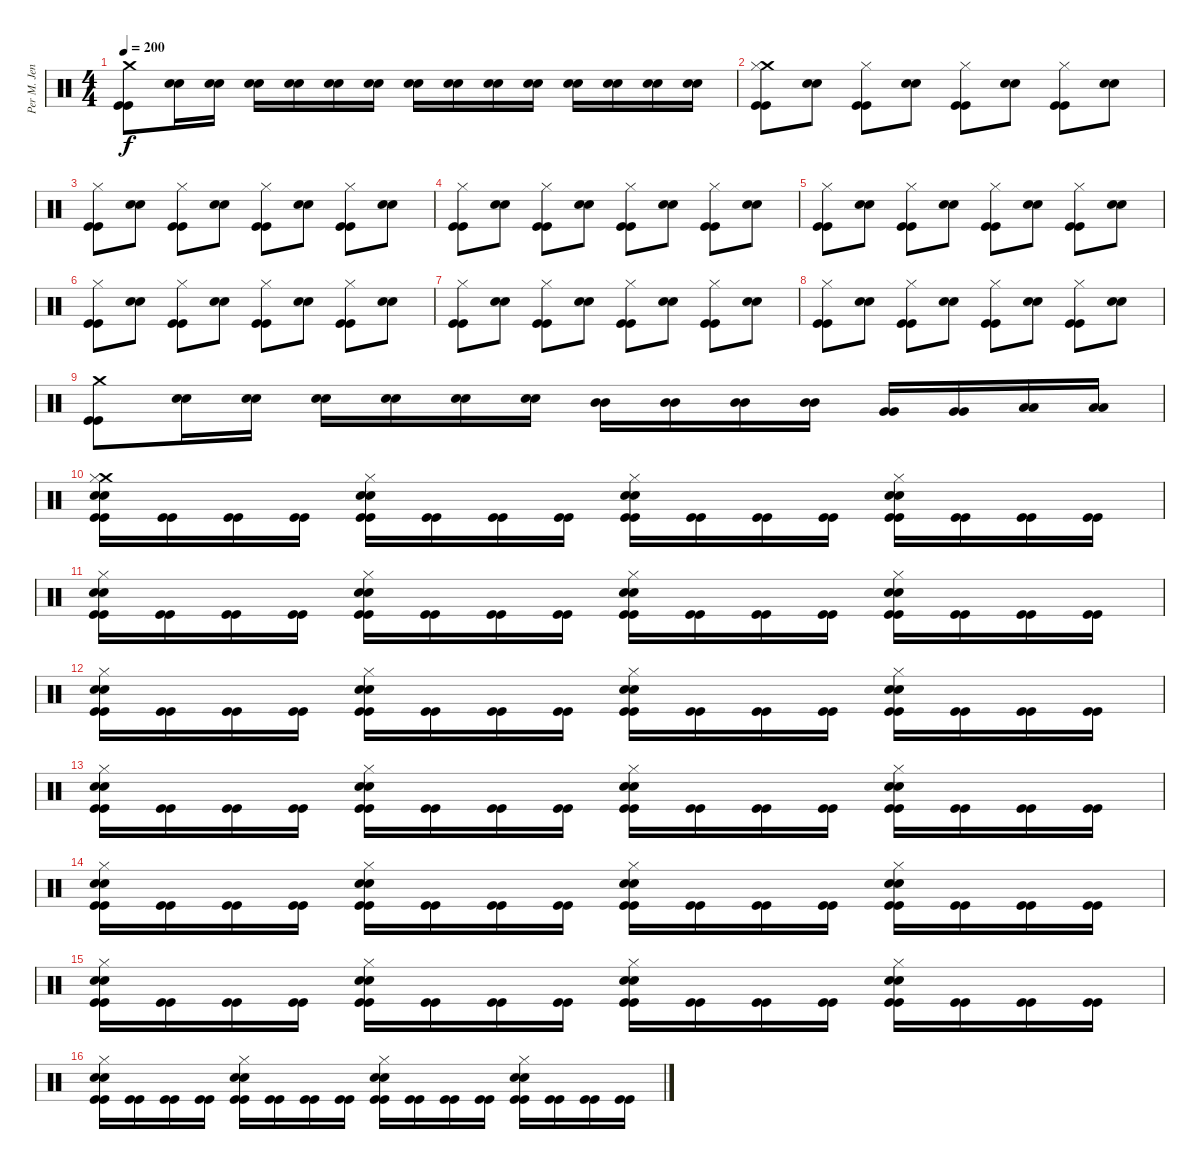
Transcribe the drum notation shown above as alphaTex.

\track ("Per M. Jensen" "Per M. Jen") {instrument percussion}
\staff {score}
\articulation defaults
\ts (4 4)
\tempo 200
\clef neutral
\ks c
("Crash medium (hit)" "Kick (hit)" "Kick (hit)").8{dy f} ("Snare (hit) 2" "Snare (hit) 2").16 ("Snare (hit) 2" "Snare (hit) 2").16 ("Snare (hit) 2" "Snare (hit) 2").16 ("Snare (hit) 2" "Snare (hit) 2").16 ("Snare (hit) 2" "Snare (hit) 2").16 ("Snare (hit) 2" "Snare (hit) 2").16 ("Snare (hit) 2" "Snare (hit) 2").16 ("Snare (hit) 2" "Snare (hit) 2").16 ("Snare (hit) 2" "Snare (hit) 2").16 ("Snare (hit) 2" "Snare (hit) 2").16 ("Snare (hit) 2" "Snare (hit) 2").16 ("Snare (hit) 2" "Snare (hit) 2").16 ("Snare (hit) 2" "Snare (hit) 2").16 ("Snare (hit) 2" "Snare (hit) 2").16 |
("Crash medium (hit)" "Hi-Hat (closed)" "Kick (hit)" "Kick (hit)").8 ("Snare (hit) 2" "Snare (hit) 2").8 ("Hi-Hat (closed)" "Kick (hit)" "Kick (hit)").8 ("Snare (hit) 2" "Snare (hit) 2").8 ("Hi-Hat (closed)" "Kick (hit)" "Kick (hit)").8 ("Snare (hit) 2" "Snare (hit) 2").8 ("Hi-Hat (closed)" "Kick (hit)" "Kick (hit)").8 ("Snare (hit) 2" "Snare (hit) 2").8 |
("Hi-Hat (closed)" "Kick (hit)" "Kick (hit)").8 ("Snare (hit) 2" "Snare (hit) 2").8 ("Hi-Hat (closed)" "Kick (hit)" "Kick (hit)").8 ("Snare (hit) 2" "Snare (hit) 2").8 ("Hi-Hat (closed)" "Kick (hit)" "Kick (hit)").8 ("Snare (hit) 2" "Snare (hit) 2").8 ("Hi-Hat (closed)" "Kick (hit)" "Kick (hit)").8 ("Snare (hit) 2" "Snare (hit) 2").8 |
("Hi-Hat (closed)" "Kick (hit)" "Kick (hit)").8 ("Snare (hit) 2" "Snare (hit) 2").8 ("Hi-Hat (closed)" "Kick (hit)" "Kick (hit)").8 ("Snare (hit) 2" "Snare (hit) 2").8 ("Hi-Hat (closed)" "Kick (hit)" "Kick (hit)").8 ("Snare (hit) 2" "Snare (hit) 2").8 ("Hi-Hat (closed)" "Kick (hit)" "Kick (hit)").8 ("Snare (hit) 2" "Snare (hit) 2").8 |
("Hi-Hat (closed)" "Kick (hit)" "Kick (hit)").8 ("Snare (hit) 2" "Snare (hit) 2").8 ("Hi-Hat (closed)" "Kick (hit)" "Kick (hit)").8 ("Snare (hit) 2" "Snare (hit) 2").8 ("Hi-Hat (closed)" "Kick (hit)" "Kick (hit)").8 ("Snare (hit) 2" "Snare (hit) 2").8 ("Hi-Hat (closed)" "Kick (hit)" "Kick (hit)").8 ("Snare (hit) 2" "Snare (hit) 2").8 |
("Hi-Hat (closed)" "Kick (hit)" "Kick (hit)").8 ("Snare (hit) 2" "Snare (hit) 2").8 ("Hi-Hat (closed)" "Kick (hit)" "Kick (hit)").8 ("Snare (hit) 2" "Snare (hit) 2").8 ("Hi-Hat (closed)" "Kick (hit)" "Kick (hit)").8 ("Snare (hit) 2" "Snare (hit) 2").8 ("Hi-Hat (closed)" "Kick (hit)" "Kick (hit)").8 ("Snare (hit) 2" "Snare (hit) 2").8 |
("Hi-Hat (closed)" "Kick (hit)" "Kick (hit)").8 ("Snare (hit) 2" "Snare (hit) 2").8 ("Hi-Hat (closed)" "Kick (hit)" "Kick (hit)").8 ("Snare (hit) 2" "Snare (hit) 2").8 ("Hi-Hat (closed)" "Kick (hit)" "Kick (hit)").8 ("Snare (hit) 2" "Snare (hit) 2").8 ("Hi-Hat (closed)" "Kick (hit)" "Kick (hit)").8 ("Snare (hit) 2" "Snare (hit) 2").8 |
("Hi-Hat (closed)" "Kick (hit)" "Kick (hit)").8 ("Snare (hit) 2" "Snare (hit) 2").8 ("Hi-Hat (closed)" "Kick (hit)" "Kick (hit)").8 ("Snare (hit) 2" "Snare (hit) 2").8 ("Hi-Hat (closed)" "Kick (hit)" "Kick (hit)").8 ("Snare (hit) 2" "Snare (hit) 2").8 ("Hi-Hat (closed)" "Kick (hit)" "Kick (hit)").8 ("Snare (hit) 2" "Snare (hit) 2").8 |
("Crash medium (hit)" "Kick (hit)" "Kick (hit)").8 ("Snare (hit) 2" "Snare (hit) 2").16 ("Snare (hit) 2" "Snare (hit) 2").16 ("Snare (hit) 2" "Snare (hit) 2").16 ("Snare (hit) 2" "Snare (hit) 2").16 ("Snare (hit) 2" "Snare (hit) 2").16 ("Snare (hit) 2" "Snare (hit) 2").16 ("Mid Tom (hit)" "Mid Tom (hit)").16 ("Mid Tom (hit)" "Mid Tom (hit)").16 ("Mid Tom (hit)" "Mid Tom (hit)").16 ("Mid Tom (hit)" "Mid Tom (hit)").16 ("Very Low Tom (hit)" "Very Low Tom (hit)").16 ("Very Low Tom (hit)" "Very Low Tom (hit)").16 ("Low Floor Tom (hit)" "Low Floor Tom (hit)").16 ("Low Floor Tom (hit)" "Low Floor Tom (hit)").16 |
("Crash medium (hit)" "Hi-Hat (closed)" "Snare (hit) 2" "Snare (hit) 2" "Kick (hit)" "Kick (hit)").16 ("Kick (hit)" "Kick (hit)").16 ("Kick (hit)" "Kick (hit)").16 ("Kick (hit)" "Kick (hit)").16 ("Hi-Hat (closed)" "Snare (hit) 2" "Snare (hit) 2" "Kick (hit)" "Kick (hit)").16 ("Kick (hit)" "Kick (hit)").16 ("Kick (hit)" "Kick (hit)").16 ("Kick (hit)" "Kick (hit)").16 ("Hi-Hat (closed)" "Snare (hit) 2" "Snare (hit) 2" "Kick (hit)" "Kick (hit)").16 ("Kick (hit)" "Kick (hit)").16 ("Kick (hit)" "Kick (hit)").16 ("Kick (hit)" "Kick (hit)").16 ("Hi-Hat (closed)" "Snare (hit) 2" "Snare (hit) 2" "Kick (hit)" "Kick (hit)").16 ("Kick (hit)" "Kick (hit)").16 ("Kick (hit)" "Kick (hit)").16 ("Kick (hit)" "Kick (hit)").16 |
("Hi-Hat (closed)" "Snare (hit) 2" "Snare (hit) 2" "Kick (hit)" "Kick (hit)").16 ("Kick (hit)" "Kick (hit)").16 ("Kick (hit)" "Kick (hit)").16 ("Kick (hit)" "Kick (hit)").16 ("Hi-Hat (closed)" "Snare (hit) 2" "Snare (hit) 2" "Kick (hit)" "Kick (hit)").16 ("Kick (hit)" "Kick (hit)").16 ("Kick (hit)" "Kick (hit)").16 ("Kick (hit)" "Kick (hit)").16 ("Hi-Hat (closed)" "Snare (hit) 2" "Snare (hit) 2" "Kick (hit)" "Kick (hit)").16 ("Kick (hit)" "Kick (hit)").16 ("Kick (hit)" "Kick (hit)").16 ("Kick (hit)" "Kick (hit)").16 ("Hi-Hat (closed)" "Snare (hit) 2" "Snare (hit) 2" "Kick (hit)" "Kick (hit)").16 ("Kick (hit)" "Kick (hit)").16 ("Kick (hit)" "Kick (hit)").16 ("Kick (hit)" "Kick (hit)").16 |
("Hi-Hat (closed)" "Snare (hit) 2" "Snare (hit) 2" "Kick (hit)" "Kick (hit)").16 ("Kick (hit)" "Kick (hit)").16 ("Kick (hit)" "Kick (hit)").16 ("Kick (hit)" "Kick (hit)").16 ("Hi-Hat (closed)" "Snare (hit) 2" "Snare (hit) 2" "Kick (hit)" "Kick (hit)").16 ("Kick (hit)" "Kick (hit)").16 ("Kick (hit)" "Kick (hit)").16 ("Kick (hit)" "Kick (hit)").16 ("Hi-Hat (closed)" "Snare (hit) 2" "Snare (hit) 2" "Kick (hit)" "Kick (hit)").16 ("Kick (hit)" "Kick (hit)").16 ("Kick (hit)" "Kick (hit)").16 ("Kick (hit)" "Kick (hit)").16 ("Hi-Hat (closed)" "Snare (hit) 2" "Snare (hit) 2" "Kick (hit)" "Kick (hit)").16 ("Kick (hit)" "Kick (hit)").16 ("Kick (hit)" "Kick (hit)").16 ("Kick (hit)" "Kick (hit)").16 |
("Hi-Hat (closed)" "Snare (hit) 2" "Snare (hit) 2" "Kick (hit)" "Kick (hit)").16 ("Kick (hit)" "Kick (hit)").16 ("Kick (hit)" "Kick (hit)").16 ("Kick (hit)" "Kick (hit)").16 ("Hi-Hat (closed)" "Snare (hit) 2" "Snare (hit) 2" "Kick (hit)" "Kick (hit)").16 ("Kick (hit)" "Kick (hit)").16 ("Kick (hit)" "Kick (hit)").16 ("Kick (hit)" "Kick (hit)").16 ("Hi-Hat (closed)" "Snare (hit) 2" "Snare (hit) 2" "Kick (hit)" "Kick (hit)").16 ("Kick (hit)" "Kick (hit)").16 ("Kick (hit)" "Kick (hit)").16 ("Kick (hit)" "Kick (hit)").16 ("Hi-Hat (closed)" "Snare (hit) 2" "Snare (hit) 2" "Kick (hit)" "Kick (hit)").16 ("Kick (hit)" "Kick (hit)").16 ("Kick (hit)" "Kick (hit)").16 ("Kick (hit)" "Kick (hit)").16 |
("Hi-Hat (closed)" "Snare (hit) 2" "Snare (hit) 2" "Kick (hit)" "Kick (hit)").16 ("Kick (hit)" "Kick (hit)").16 ("Kick (hit)" "Kick (hit)").16 ("Kick (hit)" "Kick (hit)").16 ("Hi-Hat (closed)" "Snare (hit) 2" "Snare (hit) 2" "Kick (hit)" "Kick (hit)").16 ("Kick (hit)" "Kick (hit)").16 ("Kick (hit)" "Kick (hit)").16 ("Kick (hit)" "Kick (hit)").16 ("Hi-Hat (closed)" "Snare (hit) 2" "Snare (hit) 2" "Kick (hit)" "Kick (hit)").16 ("Kick (hit)" "Kick (hit)").16 ("Kick (hit)" "Kick (hit)").16 ("Kick (hit)" "Kick (hit)").16 ("Hi-Hat (closed)" "Snare (hit) 2" "Snare (hit) 2" "Kick (hit)" "Kick (hit)").16 ("Kick (hit)" "Kick (hit)").16 ("Kick (hit)" "Kick (hit)").16 ("Kick (hit)" "Kick (hit)").16 |
("Hi-Hat (closed)" "Snare (hit) 2" "Snare (hit) 2" "Kick (hit)" "Kick (hit)").16 ("Kick (hit)" "Kick (hit)").16 ("Kick (hit)" "Kick (hit)").16 ("Kick (hit)" "Kick (hit)").16 ("Hi-Hat (closed)" "Snare (hit) 2" "Snare (hit) 2" "Kick (hit)" "Kick (hit)").16 ("Kick (hit)" "Kick (hit)").16 ("Kick (hit)" "Kick (hit)").16 ("Kick (hit)" "Kick (hit)").16 ("Hi-Hat (closed)" "Snare (hit) 2" "Snare (hit) 2" "Kick (hit)" "Kick (hit)").16 ("Kick (hit)" "Kick (hit)").16 ("Kick (hit)" "Kick (hit)").16 ("Kick (hit)" "Kick (hit)").16 ("Hi-Hat (closed)" "Snare (hit) 2" "Snare (hit) 2" "Kick (hit)" "Kick (hit)").16 ("Kick (hit)" "Kick (hit)").16 ("Kick (hit)" "Kick (hit)").16 ("Kick (hit)" "Kick (hit)").16 |
("Hi-Hat (closed)" "Snare (hit) 2" "Snare (hit) 2" "Kick (hit)" "Kick (hit)").16 ("Kick (hit)" "Kick (hit)").16 ("Kick (hit)" "Kick (hit)").16 ("Kick (hit)" "Kick (hit)").16 ("Hi-Hat (closed)" "Snare (hit) 2" "Snare (hit) 2" "Kick (hit)" "Kick (hit)").16 ("Kick (hit)" "Kick (hit)").16 ("Kick (hit)" "Kick (hit)").16 ("Kick (hit)" "Kick (hit)").16 ("Hi-Hat (closed)" "Snare (hit) 2" "Snare (hit) 2" "Kick (hit)" "Kick (hit)").16 ("Kick (hit)" "Kick (hit)").16 ("Kick (hit)" "Kick (hit)").16 ("Kick (hit)" "Kick (hit)").16 ("Hi-Hat (closed)" "Snare (hit) 2" "Snare (hit) 2" "Kick (hit)" "Kick (hit)").16 ("Kick (hit)" "Kick (hit)").16 ("Kick (hit)" "Kick (hit)").16 ("Kick (hit)" "Kick (hit)").16
